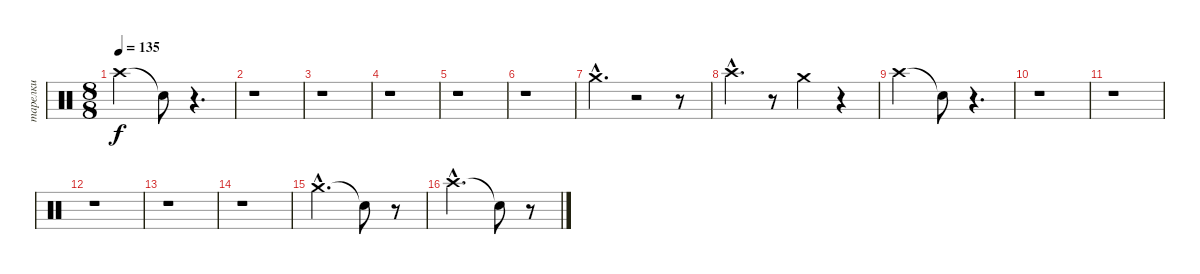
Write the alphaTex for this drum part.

\track ("тарелки" "тарелки") {instrument percussion}
\staff {score}
\articulation defaults
\ts (8 8)
\tempo 135
\clef neutral
\ks c "Crash high (hit)".2{dy f} "Snare (hit)"{t}.8
r.4{d} |
r.1 |
r.1 |
r.1 |
r.1 |
r.1 |
"Crash medium (hit)"{hac}.4{d} r.2 r.8 |
"Crash high (hit)"{hac}.4{d} r.8 "Crash medium (hit)".4 r.4 |
"Crash high (hit)".2 "Snare (hit)"{t}.8 r.4{d} |
r.1 |
r.1 |
r.1 |
r.1 |
r.1 |
"Crash medium (hit)"{hac}.2{d} "Snare (hit)"{t}.8 r.8 |
"Crash high (hit)"{hac}.2{d} "Snare (hit)"{t}.8 r.8
